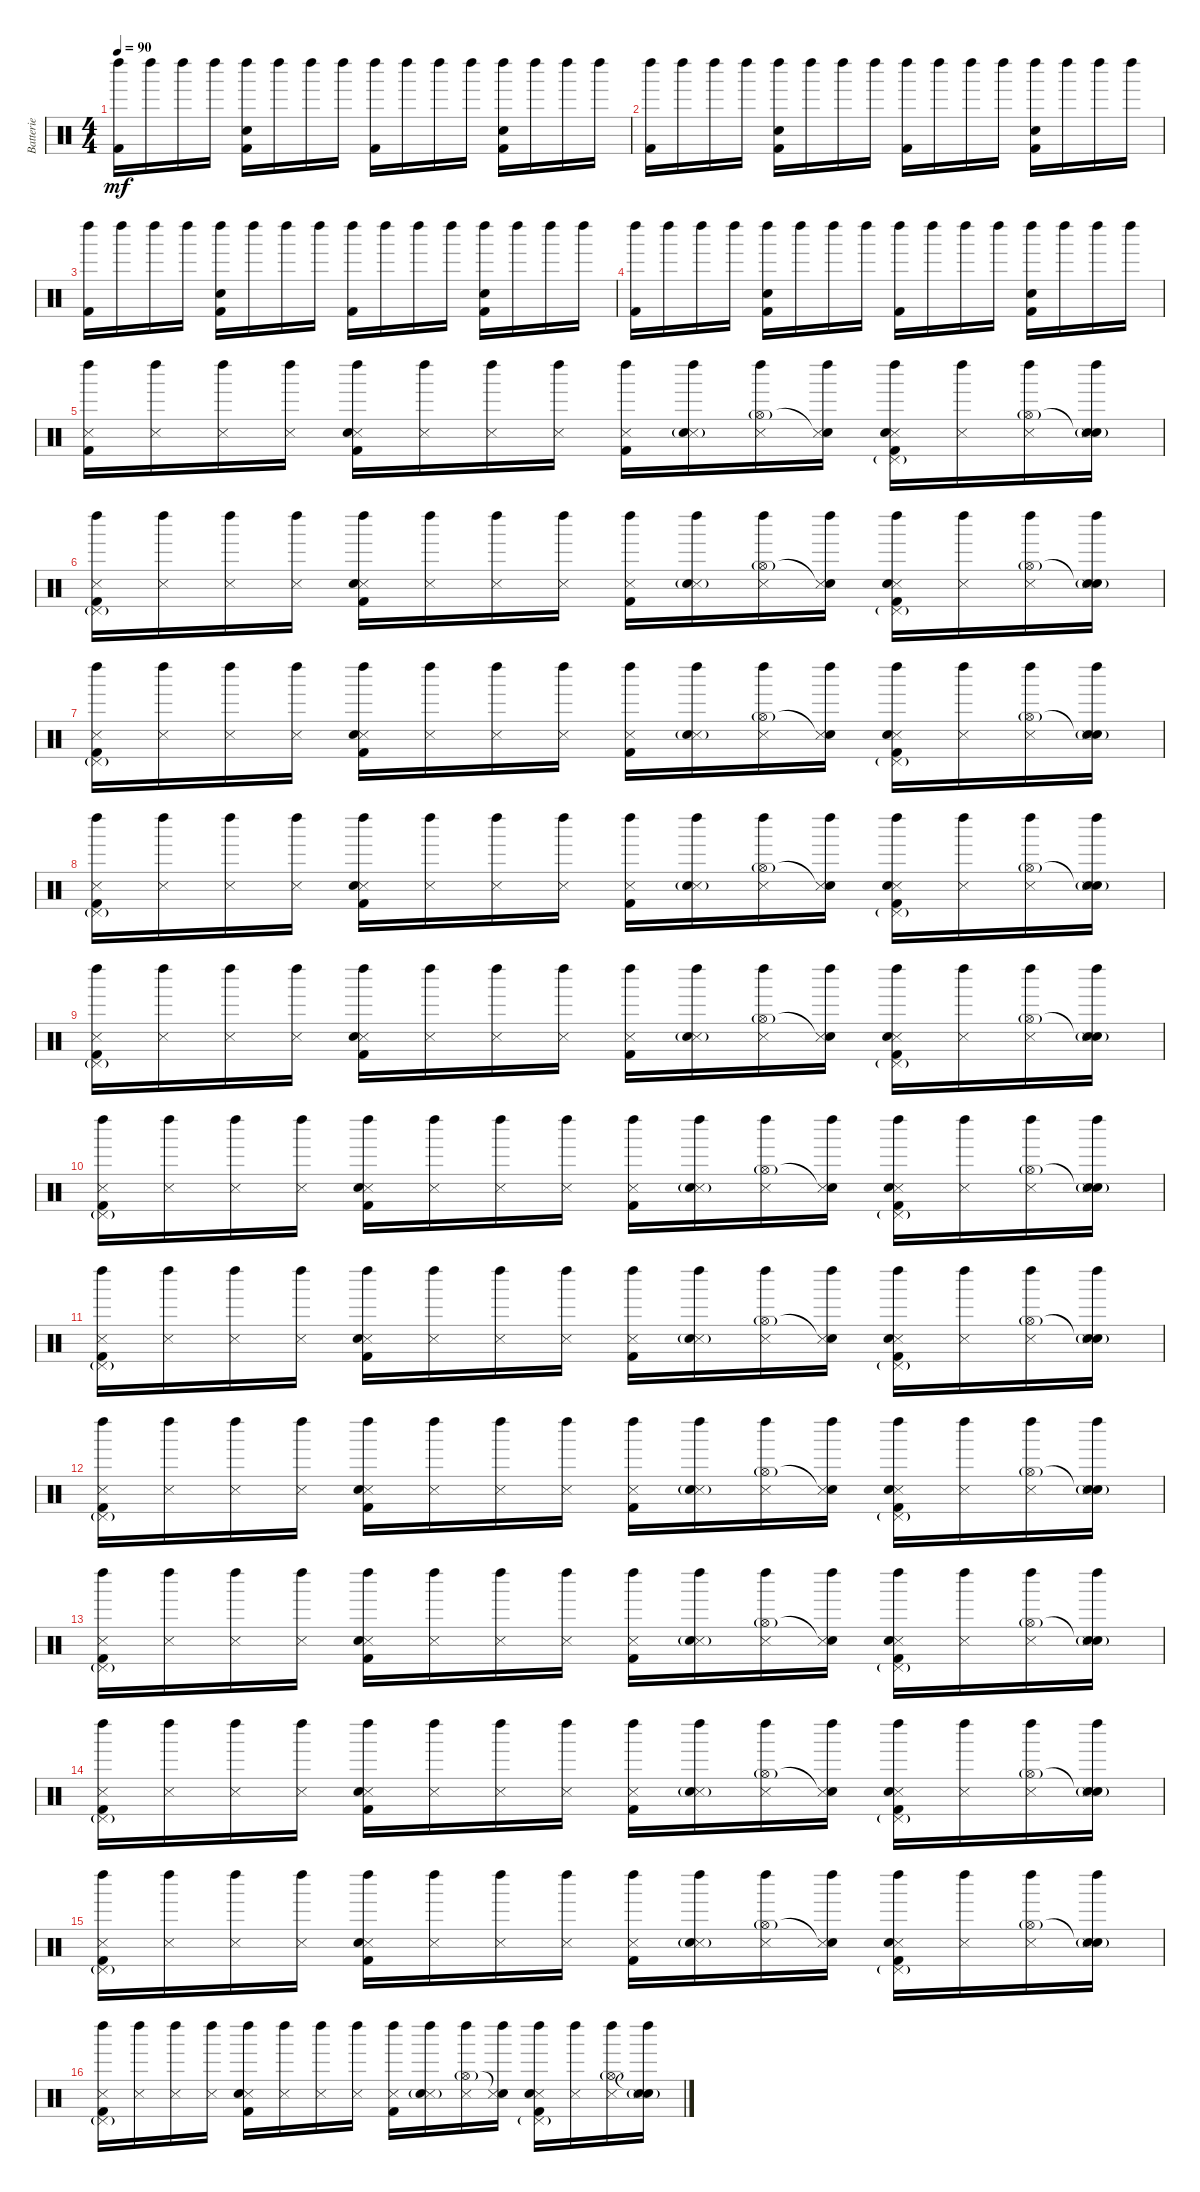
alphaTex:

\track ("Batterie" "Batterie") {instrument percussion}
\staff {score}
\articulation defaults
\ts (4 4)
\tempo 90
\clef neutral
\ks c
("Left Maraca (hit)" "Kick (hit) 2").16{dy mf} "Left Maraca (hit)".16 "Left Maraca (hit)".16 "Left Maraca (hit)".16 ("Left Maraca (hit)" "Snare (hit) 2" "Kick (hit) 2").16 "Left Maraca (hit)".16 "Left Maraca (hit)".16 "Left Maraca (hit)".16 ("Left Maraca (hit)" "Kick (hit) 2").16 "Left Maraca (hit)".16 "Left Maraca (hit)".16 "Left Maraca (hit)".16 ("Left Maraca (hit)" "Snare (hit) 2" "Kick (hit) 2").16 "Left Maraca (hit)".16 "Left Maraca (hit)".16 "Left Maraca (hit)".16 |
("Left Maraca (hit)" "Kick (hit) 2").16 "Left Maraca (hit)".16 "Left Maraca (hit)".16 "Left Maraca (hit)".16 ("Left Maraca (hit)" "Snare (hit) 2" "Kick (hit) 2").16 "Left Maraca (hit)".16 "Left Maraca (hit)".16 "Left Maraca (hit)".16 ("Left Maraca (hit)" "Kick (hit) 2").16 "Left Maraca (hit)".16 "Left Maraca (hit)".16 "Left Maraca (hit)".16 ("Left Maraca (hit)" "Snare (hit) 2" "Kick (hit) 2").16 "Left Maraca (hit)".16 "Left Maraca (hit)".16 "Left Maraca (hit)".16 |
("Left Maraca (hit)" "Kick (hit) 2").16 "Left Maraca (hit)".16 "Left Maraca (hit)".16 "Left Maraca (hit)".16 ("Left Maraca (hit)" "Snare (hit) 2" "Kick (hit) 2").16 "Left Maraca (hit)".16 "Left Maraca (hit)".16 "Left Maraca (hit)".16 ("Left Maraca (hit)" "Kick (hit) 2").16 "Left Maraca (hit)".16 "Left Maraca (hit)".16 "Left Maraca (hit)".16 ("Left Maraca (hit)" "Snare (hit) 2" "Kick (hit) 2").16 "Left Maraca (hit)".16 "Left Maraca (hit)".16 "Left Maraca (hit)".16 |
("Left Maraca (hit)" "Kick (hit) 2").16 "Left Maraca (hit)".16 "Left Maraca (hit)".16 "Left Maraca (hit)".16 ("Left Maraca (hit)" "Snare (hit) 2" "Kick (hit) 2").16 "Left Maraca (hit)".16 "Left Maraca (hit)".16 "Left Maraca (hit)".16 ("Left Maraca (hit)" "Kick (hit) 2").16 "Left Maraca (hit)".16 "Left Maraca (hit)".16 "Left Maraca (hit)".16 ("Left Maraca (hit)" "Snare (hit) 2" "Kick (hit) 2").16 "Left Maraca (hit)".16 "Left Maraca (hit)".16 "Left Maraca (hit)".16 |
("Left Maraca (hit)" "Snare (side stick) 3" "Kick (hit) 2").16 ("Left Maraca (hit)" "Snare (side stick) 3").16 ("Left Maraca (hit)" "Snare (side stick) 3").16 ("Left Maraca (hit)" "Snare (side stick) 3").16 ("Left Maraca (hit)" "Snare (side stick) 3" "Snare (hit) 2" "Kick (hit) 2").16 ("Left Maraca (hit)" "Snare (side stick) 3").16 ("Left Maraca (hit)" "Snare (side stick) 3").16 ("Left Maraca (hit)" "Snare (side stick) 3").16 ("Left Maraca (hit)" "Snare (side stick) 3" "Kick (hit) 2").16 ("Left Maraca (hit)" "Snare (side stick) 3" "Snare (hit) 2"{g}).16 ("Hi-Hat (open)"{g} "Left Maraca (hit)" "Snare (side stick) 3").16 ("Snare (hit)"{t} "Left Maraca (hit)" "Snare (side stick) 3").16 ("Pedal Hi-Hat (hit)"{g} "Left Maraca (hit)" "Snare (side stick) 3" "Snare (hit) 2" "Kick (hit) 2").16 ("Left Maraca (hit)" "Snare (side stick) 3").16 ("Hi-Hat (open)"{g} "Left Maraca (hit)" "Snare (side stick) 3").16 ("Snare (hit)"{t} "Left Maraca (hit)" "Snare (side stick) 3" "Snare (hit) 2"{g}).16 |
("Pedal Hi-Hat (hit)"{g} "Left Maraca (hit)" "Snare (side stick) 3" "Kick (hit) 2").16 ("Left Maraca (hit)" "Snare (side stick) 3").16 ("Left Maraca (hit)" "Snare (side stick) 3").16 ("Left Maraca (hit)" "Snare (side stick) 3").16 ("Left Maraca (hit)" "Snare (side stick) 3" "Snare (hit) 2" "Kick (hit) 2").16 ("Left Maraca (hit)" "Snare (side stick) 3").16 ("Left Maraca (hit)" "Snare (side stick) 3").16 ("Left Maraca (hit)" "Snare (side stick) 3").16 ("Left Maraca (hit)" "Snare (side stick) 3" "Kick (hit) 2").16 ("Left Maraca (hit)" "Snare (side stick) 3" "Snare (hit) 2"{g}).16 ("Hi-Hat (open)"{g} "Left Maraca (hit)" "Snare (side stick) 3").16 ("Snare (hit)"{t} "Left Maraca (hit)" "Snare (side stick) 3").16 ("Pedal Hi-Hat (hit)"{g} "Left Maraca (hit)" "Snare (side stick) 3" "Snare (hit) 2" "Kick (hit) 2").16 ("Left Maraca (hit)" "Snare (side stick) 3").16 ("Hi-Hat (open)"{g} "Left Maraca (hit)" "Snare (side stick) 3").16 ("Snare (hit)"{t} "Left Maraca (hit)" "Snare (side stick) 3" "Snare (hit) 2"{g}).16 |
("Pedal Hi-Hat (hit)"{g} "Left Maraca (hit)" "Snare (side stick) 3" "Kick (hit) 2").16 ("Left Maraca (hit)" "Snare (side stick) 3").16 ("Left Maraca (hit)" "Snare (side stick) 3").16 ("Left Maraca (hit)" "Snare (side stick) 3").16 ("Left Maraca (hit)" "Snare (side stick) 3" "Snare (hit) 2" "Kick (hit) 2").16 ("Left Maraca (hit)" "Snare (side stick) 3").16 ("Left Maraca (hit)" "Snare (side stick) 3").16 ("Left Maraca (hit)" "Snare (side stick) 3").16 ("Left Maraca (hit)" "Snare (side stick) 3" "Kick (hit) 2").16 ("Left Maraca (hit)" "Snare (side stick) 3" "Snare (hit) 2"{g}).16 ("Hi-Hat (open)"{g} "Left Maraca (hit)" "Snare (side stick) 3").16 ("Snare (hit)"{t} "Left Maraca (hit)" "Snare (side stick) 3").16 ("Pedal Hi-Hat (hit)"{g} "Left Maraca (hit)" "Snare (side stick) 3" "Snare (hit) 2" "Kick (hit) 2").16 ("Left Maraca (hit)" "Snare (side stick) 3").16 ("Hi-Hat (open)"{g} "Left Maraca (hit)" "Snare (side stick) 3").16 ("Snare (hit)"{t} "Left Maraca (hit)" "Snare (side stick) 3" "Snare (hit) 2"{g}).16 |
("Pedal Hi-Hat (hit)"{g} "Left Maraca (hit)" "Snare (side stick) 3" "Kick (hit) 2").16 ("Left Maraca (hit)" "Snare (side stick) 3").16 ("Left Maraca (hit)" "Snare (side stick) 3").16 ("Left Maraca (hit)" "Snare (side stick) 3").16 ("Left Maraca (hit)" "Snare (side stick) 3" "Snare (hit) 2" "Kick (hit) 2").16 ("Left Maraca (hit)" "Snare (side stick) 3").16 ("Left Maraca (hit)" "Snare (side stick) 3").16 ("Left Maraca (hit)" "Snare (side stick) 3").16 ("Left Maraca (hit)" "Snare (side stick) 3" "Kick (hit) 2").16 ("Left Maraca (hit)" "Snare (side stick) 3" "Snare (hit) 2"{g}).16 ("Hi-Hat (open)"{g} "Left Maraca (hit)" "Snare (side stick) 3").16 ("Snare (hit)"{t} "Left Maraca (hit)" "Snare (side stick) 3").16 ("Pedal Hi-Hat (hit)"{g} "Left Maraca (hit)" "Snare (side stick) 3" "Snare (hit) 2" "Kick (hit) 2").16 ("Left Maraca (hit)" "Snare (side stick) 3").16 ("Hi-Hat (open)"{g} "Left Maraca (hit)" "Snare (side stick) 3").16 ("Snare (hit)"{t} "Left Maraca (hit)" "Snare (side stick) 3" "Snare (hit) 2"{g}).16 |
("Pedal Hi-Hat (hit)"{g} "Left Maraca (hit)" "Snare (side stick) 3" "Kick (hit) 2").16 ("Left Maraca (hit)" "Snare (side stick) 3").16 ("Left Maraca (hit)" "Snare (side stick) 3").16 ("Left Maraca (hit)" "Snare (side stick) 3").16 ("Left Maraca (hit)" "Snare (side stick) 3" "Snare (hit) 2" "Kick (hit) 2").16 ("Left Maraca (hit)" "Snare (side stick) 3").16 ("Left Maraca (hit)" "Snare (side stick) 3").16 ("Left Maraca (hit)" "Snare (side stick) 3").16 ("Left Maraca (hit)" "Snare (side stick) 3" "Kick (hit) 2").16 ("Left Maraca (hit)" "Snare (side stick) 3" "Snare (hit) 2"{g}).16 ("Hi-Hat (open)"{g} "Left Maraca (hit)" "Snare (side stick) 3").16 ("Snare (hit)"{t} "Left Maraca (hit)" "Snare (side stick) 3").16 ("Pedal Hi-Hat (hit)"{g} "Left Maraca (hit)" "Snare (side stick) 3" "Snare (hit) 2" "Kick (hit) 2").16 ("Left Maraca (hit)" "Snare (side stick) 3").16 ("Hi-Hat (open)"{g} "Left Maraca (hit)" "Snare (side stick) 3").16 ("Snare (hit)"{t} "Left Maraca (hit)" "Snare (side stick) 3" "Snare (hit) 2"{g}).16 |
("Pedal Hi-Hat (hit)"{g} "Left Maraca (hit)" "Snare (side stick) 3" "Kick (hit) 2").16 ("Left Maraca (hit)" "Snare (side stick) 3").16 ("Left Maraca (hit)" "Snare (side stick) 3").16 ("Left Maraca (hit)" "Snare (side stick) 3").16 ("Left Maraca (hit)" "Snare (side stick) 3" "Snare (hit) 2" "Kick (hit) 2").16 ("Left Maraca (hit)" "Snare (side stick) 3").16 ("Left Maraca (hit)" "Snare (side stick) 3").16 ("Left Maraca (hit)" "Snare (side stick) 3").16 ("Left Maraca (hit)" "Snare (side stick) 3" "Kick (hit) 2").16 ("Left Maraca (hit)" "Snare (side stick) 3" "Snare (hit) 2"{g}).16 ("Hi-Hat (open)"{g} "Left Maraca (hit)" "Snare (side stick) 3").16 ("Snare (hit)"{t} "Left Maraca (hit)" "Snare (side stick) 3").16 ("Pedal Hi-Hat (hit)"{g} "Left Maraca (hit)" "Snare (side stick) 3" "Snare (hit) 2" "Kick (hit) 2").16 ("Left Maraca (hit)" "Snare (side stick) 3").16 ("Hi-Hat (open)"{g} "Left Maraca (hit)" "Snare (side stick) 3").16 ("Snare (hit)"{t} "Left Maraca (hit)" "Snare (side stick) 3" "Snare (hit) 2"{g}).16 |
("Pedal Hi-Hat (hit)"{g} "Left Maraca (hit)" "Snare (side stick) 3" "Kick (hit) 2").16 ("Left Maraca (hit)" "Snare (side stick) 3").16 ("Left Maraca (hit)" "Snare (side stick) 3").16 ("Left Maraca (hit)" "Snare (side stick) 3").16 ("Left Maraca (hit)" "Snare (side stick) 3" "Snare (hit) 2" "Kick (hit) 2").16 ("Left Maraca (hit)" "Snare (side stick) 3").16 ("Left Maraca (hit)" "Snare (side stick) 3").16 ("Left Maraca (hit)" "Snare (side stick) 3").16 ("Left Maraca (hit)" "Snare (side stick) 3" "Kick (hit) 2").16 ("Left Maraca (hit)" "Snare (side stick) 3" "Snare (hit) 2"{g}).16 ("Hi-Hat (open)"{g} "Left Maraca (hit)" "Snare (side stick) 3").16 ("Snare (hit)"{t} "Left Maraca (hit)" "Snare (side stick) 3").16 ("Pedal Hi-Hat (hit)"{g} "Left Maraca (hit)" "Snare (side stick) 3" "Snare (hit) 2" "Kick (hit) 2").16 ("Left Maraca (hit)" "Snare (side stick) 3").16 ("Hi-Hat (open)"{g} "Left Maraca (hit)" "Snare (side stick) 3").16 ("Snare (hit)"{t} "Left Maraca (hit)" "Snare (side stick) 3" "Snare (hit) 2"{g}).16 |
("Pedal Hi-Hat (hit)"{g} "Left Maraca (hit)" "Snare (side stick) 3" "Kick (hit) 2").16 ("Left Maraca (hit)" "Snare (side stick) 3").16 ("Left Maraca (hit)" "Snare (side stick) 3").16 ("Left Maraca (hit)" "Snare (side stick) 3").16 ("Left Maraca (hit)" "Snare (side stick) 3" "Snare (hit) 2" "Kick (hit) 2").16 ("Left Maraca (hit)" "Snare (side stick) 3").16 ("Left Maraca (hit)" "Snare (side stick) 3").16 ("Left Maraca (hit)" "Snare (side stick) 3").16 ("Left Maraca (hit)" "Snare (side stick) 3" "Kick (hit) 2").16 ("Left Maraca (hit)" "Snare (side stick) 3" "Snare (hit) 2"{g}).16 ("Hi-Hat (open)"{g} "Left Maraca (hit)" "Snare (side stick) 3").16 ("Snare (hit)"{t} "Left Maraca (hit)" "Snare (side stick) 3").16 ("Pedal Hi-Hat (hit)"{g} "Left Maraca (hit)" "Snare (side stick) 3" "Snare (hit) 2" "Kick (hit) 2").16 ("Left Maraca (hit)" "Snare (side stick) 3").16 ("Hi-Hat (open)"{g} "Left Maraca (hit)" "Snare (side stick) 3").16 ("Snare (hit)"{t} "Left Maraca (hit)" "Snare (side stick) 3" "Snare (hit) 2"{g}).16 |
("Pedal Hi-Hat (hit)"{g} "Left Maraca (hit)" "Snare (side stick) 3" "Kick (hit) 2").16 ("Left Maraca (hit)" "Snare (side stick) 3").16 ("Left Maraca (hit)" "Snare (side stick) 3").16 ("Left Maraca (hit)" "Snare (side stick) 3").16 ("Left Maraca (hit)" "Snare (side stick) 3" "Snare (hit) 2" "Kick (hit) 2").16 ("Left Maraca (hit)" "Snare (side stick) 3").16 ("Left Maraca (hit)" "Snare (side stick) 3").16 ("Left Maraca (hit)" "Snare (side stick) 3").16 ("Left Maraca (hit)" "Snare (side stick) 3" "Kick (hit) 2").16 ("Left Maraca (hit)" "Snare (side stick) 3" "Snare (hit) 2"{g}).16 ("Hi-Hat (open)"{g} "Left Maraca (hit)" "Snare (side stick) 3").16 ("Snare (hit)"{t} "Left Maraca (hit)" "Snare (side stick) 3").16 ("Pedal Hi-Hat (hit)"{g} "Left Maraca (hit)" "Snare (side stick) 3" "Snare (hit) 2" "Kick (hit) 2").16 ("Left Maraca (hit)" "Snare (side stick) 3").16 ("Hi-Hat (open)"{g} "Left Maraca (hit)" "Snare (side stick) 3").16 ("Snare (hit)"{t} "Left Maraca (hit)" "Snare (side stick) 3" "Snare (hit) 2"{g}).16 |
("Pedal Hi-Hat (hit)"{g} "Left Maraca (hit)" "Snare (side stick) 3" "Kick (hit) 2").16 ("Left Maraca (hit)" "Snare (side stick) 3").16 ("Left Maraca (hit)" "Snare (side stick) 3").16 ("Left Maraca (hit)" "Snare (side stick) 3").16 ("Left Maraca (hit)" "Snare (side stick) 3" "Snare (hit) 2" "Kick (hit) 2").16 ("Left Maraca (hit)" "Snare (side stick) 3").16 ("Left Maraca (hit)" "Snare (side stick) 3").16 ("Left Maraca (hit)" "Snare (side stick) 3").16 ("Left Maraca (hit)" "Snare (side stick) 3" "Kick (hit) 2").16 ("Left Maraca (hit)" "Snare (side stick) 3" "Snare (hit) 2"{g}).16 ("Hi-Hat (open)"{g} "Left Maraca (hit)" "Snare (side stick) 3").16 ("Snare (hit)"{t} "Left Maraca (hit)" "Snare (side stick) 3").16 ("Pedal Hi-Hat (hit)"{g} "Left Maraca (hit)" "Snare (side stick) 3" "Snare (hit) 2" "Kick (hit) 2").16 ("Left Maraca (hit)" "Snare (side stick) 3").16 ("Hi-Hat (open)"{g} "Left Maraca (hit)" "Snare (side stick) 3").16 ("Snare (hit)"{t} "Left Maraca (hit)" "Snare (side stick) 3" "Snare (hit) 2"{g}).16 |
("Pedal Hi-Hat (hit)"{g} "Left Maraca (hit)" "Snare (side stick) 3" "Kick (hit) 2").16 ("Left Maraca (hit)" "Snare (side stick) 3").16 ("Left Maraca (hit)" "Snare (side stick) 3").16 ("Left Maraca (hit)" "Snare (side stick) 3").16 ("Left Maraca (hit)" "Snare (side stick) 3" "Snare (hit) 2" "Kick (hit) 2").16 ("Left Maraca (hit)" "Snare (side stick) 3").16 ("Left Maraca (hit)" "Snare (side stick) 3").16 ("Left Maraca (hit)" "Snare (side stick) 3").16 ("Left Maraca (hit)" "Snare (side stick) 3" "Kick (hit) 2").16 ("Left Maraca (hit)" "Snare (side stick) 3" "Snare (hit) 2"{g}).16 ("Hi-Hat (open)"{g} "Left Maraca (hit)" "Snare (side stick) 3").16 ("Snare (hit)"{t} "Left Maraca (hit)" "Snare (side stick) 3").16 ("Pedal Hi-Hat (hit)"{g} "Left Maraca (hit)" "Snare (side stick) 3" "Snare (hit) 2" "Kick (hit) 2").16 ("Left Maraca (hit)" "Snare (side stick) 3").16 ("Hi-Hat (open)"{g} "Left Maraca (hit)" "Snare (side stick) 3").16 ("Snare (hit)"{t} "Left Maraca (hit)" "Snare (side stick) 3" "Snare (hit) 2"{g}).16 |
("Pedal Hi-Hat (hit)"{g} "Left Maraca (hit)" "Snare (side stick) 3" "Kick (hit) 2").16 ("Left Maraca (hit)" "Snare (side stick) 3").16 ("Left Maraca (hit)" "Snare (side stick) 3").16 ("Left Maraca (hit)" "Snare (side stick) 3").16 ("Left Maraca (hit)" "Snare (side stick) 3" "Snare (hit) 2" "Kick (hit) 2").16 ("Left Maraca (hit)" "Snare (side stick) 3").16 ("Left Maraca (hit)" "Snare (side stick) 3").16 ("Left Maraca (hit)" "Snare (side stick) 3").16 ("Left Maraca (hit)" "Snare (side stick) 3" "Kick (hit) 2").16 ("Left Maraca (hit)" "Snare (side stick) 3" "Snare (hit) 2"{g}).16 ("Hi-Hat (open)"{g} "Left Maraca (hit)" "Snare (side stick) 3").16 ("Snare (hit)"{t} "Left Maraca (hit)" "Snare (side stick) 3").16 ("Pedal Hi-Hat (hit)"{g} "Left Maraca (hit)" "Snare (side stick) 3" "Snare (hit) 2" "Kick (hit) 2").16 ("Left Maraca (hit)" "Snare (side stick) 3").16 ("Hi-Hat (open)"{g} "Left Maraca (hit)" "Snare (side stick) 3").16 ("Snare (hit)"{t} "Left Maraca (hit)" "Snare (side stick) 3" "Snare (hit) 2"{g}).16
